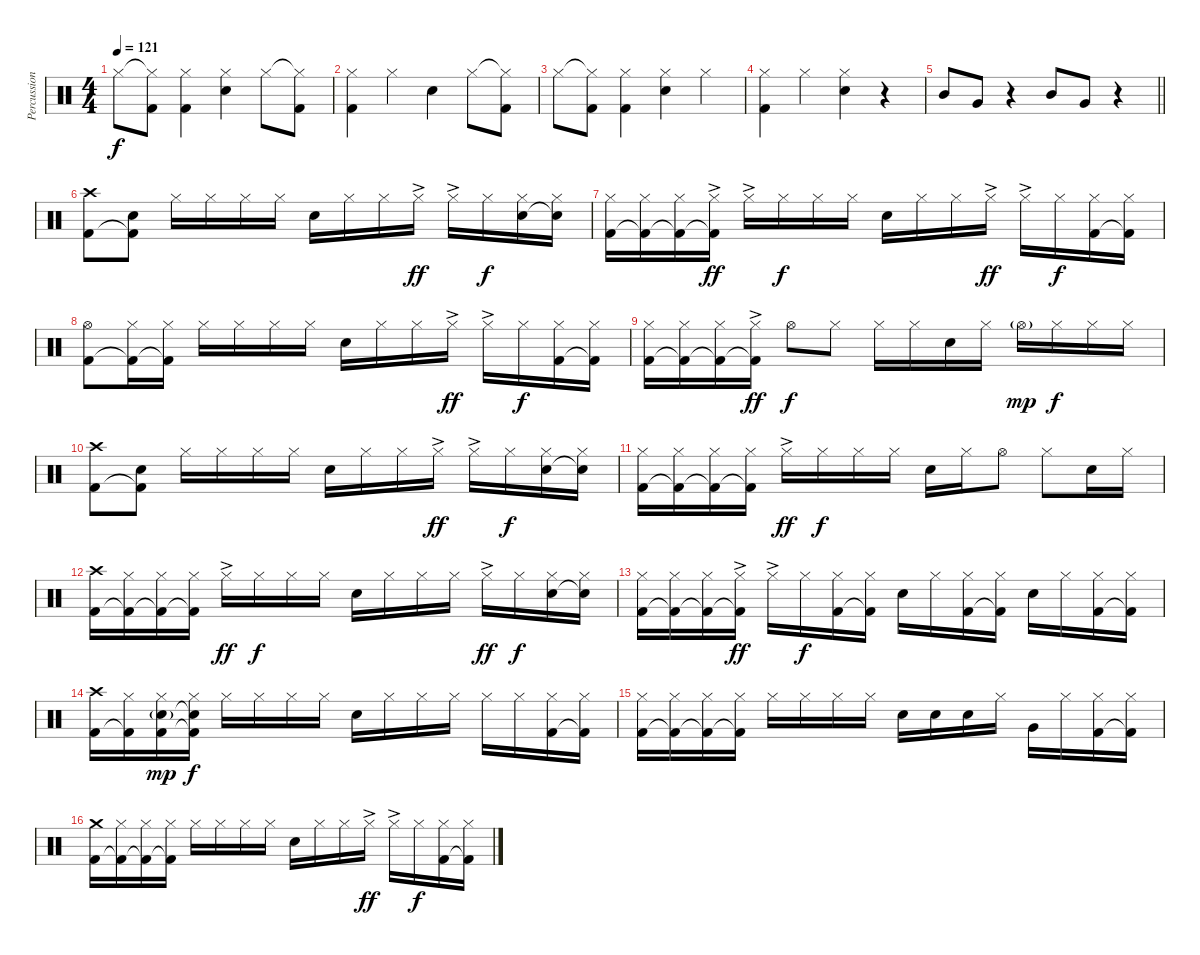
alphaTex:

\track ("Percussioni" "Percussion") {instrument percussion}
\staff {score}
\articulation defaults
\ts (4 4)
\tempo 121
\clef neutral
\ks c "Hi-Hat (closed)".8{dy f}
("Hi-Hat (closed)"{t} "Kick (hit) 2").8 ("Hi-Hat (closed)" "Kick (hit) 2").4 ("Hi-Hat (closed)" "Snare (hit) 2").4 "Hi-Hat (closed)".8 ("Hi-Hat (closed)"{t} "Kick (hit) 2").8 |
("Hi-Hat (closed)" "Kick (hit) 2").4 "Hi-Hat (closed)".4 "Snare (hit) 2".4 "Hi-Hat (closed)".8 ("Hi-Hat (closed)"{t} "Kick (hit) 2").8 |
"Hi-Hat (closed)".8 ("Hi-Hat (closed)"{t} "Kick (hit) 2").8 ("Hi-Hat (closed)" "Kick (hit) 2").4 ("Hi-Hat (closed)" "Snare (hit) 2").4 "Hi-Hat (closed)".4 |
("Hi-Hat (closed)" "Kick (hit) 2").4 "Hi-Hat (closed)".4 ("Hi-Hat (closed)" "Snare (hit) 2").4 r.4 |
\barLineRight lightlight "Mid Tom (hit)".8 "Very Low Tom (hit)".8
r.4 "Mid Tom (hit)".8 "Very Low Tom (hit)".8 r.4 |
("Crash high (hit)" "Kick (hit) 2").8 ("Snare (hit) 2" "Kick (hit) 2"{t}).8 "Hi-Hat (closed)".16 "Hi-Hat (closed)".16 "Hi-Hat (closed)".16 "Hi-Hat (closed)".16 "Snare (hit) 2".16 "Hi-Hat (closed)".16 "Hi-Hat (closed)".16 "Hi-Hat (closed)"{ac}.16{dy ff} "Hi-Hat (closed)"{ac}.16 "Hi-Hat (closed)".16{dy f} ("Hi-Hat (closed)" "Snare (hit) 2").16 ("Hi-Hat (closed)" "Snare (hit) 2"{t}).16 |
("Hi-Hat (closed)" "Kick (hit) 2").16 ("Hi-Hat (closed)" "Kick (hit) 2"{t}).16 ("Hi-Hat (closed)" "Kick (hit) 2"{t}).16 ("Hi-Hat (closed)"{ac} "Kick (hit) 2"{t}).16{dy ff} "Hi-Hat (closed)"{ac}.16 "Hi-Hat (closed)".16{dy f} "Hi-Hat (closed)".16 "Hi-Hat (closed)".16 "Snare (hit) 2".16 "Hi-Hat (closed)".16 "Hi-Hat (closed)".16 "Hi-Hat (closed)"{ac}.16{dy ff} "Hi-Hat (closed)"{ac}.16 "Hi-Hat (closed)".16{dy f} ("Hi-Hat (closed)" "Kick (hit) 2").16 ("Hi-Hat (closed)" "Kick (hit) 2"{t}).16 |
("Hi-Hat (open)" "Kick (hit) 2").8 ("Hi-Hat (closed)" "Kick (hit) 2"{t}).16 ("Hi-Hat (closed)" "Kick (hit) 2"{t}).16 "Hi-Hat (closed)".16 "Hi-Hat (closed)".16 "Hi-Hat (closed)".16 "Hi-Hat (closed)".16 "Snare (hit) 2".16 "Hi-Hat (closed)".16 "Hi-Hat (closed)".16 "Hi-Hat (closed)"{ac}.16{dy ff} "Hi-Hat (closed)"{ac}.16 "Hi-Hat (closed)".16{dy f} ("Hi-Hat (closed)" "Kick (hit) 2").16 ("Hi-Hat (closed)" "Kick (hit) 2"{t}).16 |
("Hi-Hat (closed)" "Kick (hit) 2").16 ("Hi-Hat (closed)" "Kick (hit) 2"{t}).16 ("Hi-Hat (closed)" "Kick (hit) 2"{t}).16 ("Hi-Hat (closed)"{ac} "Kick (hit) 2"{t}).16{dy ff} "Hi-Hat (open)".8{dy f} "Hi-Hat (closed)".8 "Hi-Hat (closed)".16 "Hi-Hat (closed)".16 "Snare (hit) 2".16 "Hi-Hat (closed)".16 "Hi-Hat (open)"{g}.16{dy mp} "Hi-Hat (closed)".16{dy f} "Hi-Hat (closed)".16 "Hi-Hat (closed)".16 |
("Crash high (hit)" "Kick (hit) 2").8 ("Snare (hit) 2" "Kick (hit) 2"{t}).8 "Hi-Hat (closed)".16 "Hi-Hat (closed)".16 "Hi-Hat (closed)".16 "Hi-Hat (closed)".16 "Snare (hit) 2".16 "Hi-Hat (closed)".16 "Hi-Hat (closed)".16 "Hi-Hat (closed)"{ac}.16{dy ff} "Hi-Hat (closed)"{ac}.16 "Hi-Hat (closed)".16{dy f} ("Hi-Hat (closed)" "Snare (hit) 2").16 ("Hi-Hat (closed)" "Snare (hit) 2"{t}).16 |
("Hi-Hat (closed)" "Kick (hit) 2").16 ("Hi-Hat (closed)" "Kick (hit) 2"{t}).16 ("Hi-Hat (closed)" "Kick (hit) 2"{t}).16 ("Hi-Hat (closed)" "Kick (hit) 2"{t}).16 "Hi-Hat (closed)"{ac}.16{dy ff} "Hi-Hat (closed)".16{dy f} "Hi-Hat (closed)".16 "Hi-Hat (closed)".16 "Snare (hit) 2".16 "Hi-Hat (closed)".16 "Hi-Hat (open)".8 "Hi-Hat (closed)".8 "Snare (hit) 2".16 "Hi-Hat (closed)".16 |
("Crash high (hit)" "Kick (hit) 2").16 ("Hi-Hat (closed)" "Kick (hit) 2"{t}).16 ("Hi-Hat (closed)" "Kick (hit) 2"{t}).16 ("Hi-Hat (closed)" "Kick (hit) 2"{t}).16 "Hi-Hat (closed)"{ac}.16{dy ff} "Hi-Hat (closed)".16{dy f} "Hi-Hat (closed)".16 "Hi-Hat (closed)".16 "Snare (hit) 2".16 "Hi-Hat (closed)".16 "Hi-Hat (closed)".16 "Hi-Hat (closed)".16 "Hi-Hat (closed)"{ac}.16{dy ff} "Hi-Hat (closed)".16{dy f} ("Hi-Hat (closed)" "Snare (hit) 2").16 ("Hi-Hat (closed)" "Snare (hit) 2"{t}).16 |
("Hi-Hat (closed)" "Kick (hit) 2").16 ("Hi-Hat (closed)" "Kick (hit) 2"{t}).16 ("Hi-Hat (closed)" "Kick (hit) 2"{t}).16 ("Hi-Hat (closed)"{ac} "Kick (hit) 2"{t}).16{dy ff} "Hi-Hat (closed)"{ac}.16 "Hi-Hat (closed)".16{dy f} ("Hi-Hat (closed)" "Kick (hit) 2").16 ("Hi-Hat (closed)" "Kick (hit) 2"{t}).16 "Snare (hit) 2".16 "Hi-Hat (closed)".16 ("Hi-Hat (closed)" "Kick (hit) 2").16 ("Hi-Hat (closed)" "Kick (hit) 2"{t}).16 "Snare (hit) 2".16 "Hi-Hat (closed)".16 ("Hi-Hat (closed)" "Kick (hit) 2").16 ("Hi-Hat (closed)" "Kick (hit) 2"{t}).16 |
("Crash high (hit)" "Kick (hit) 2").16 ("Hi-Hat (closed)" "Kick (hit) 2"{t}).16 ("Hi-Hat (closed)" "Snare (hit) 2"{g} "Kick (hit) 2").16{dy mp} ("Hi-Hat (closed)" "Snare (hit) 2"{t} "Kick (hit) 2"{t}).16{dy f} "Hi-Hat (closed)".16 "Hi-Hat (closed)".16 "Hi-Hat (closed)".16 "Hi-Hat (closed)".16 "Snare (hit) 2".16 "Hi-Hat (closed)".16 "Hi-Hat (closed)".16 "Hi-Hat (closed)".16 "Hi-Hat (closed)".16 "Hi-Hat (closed)".16 ("Hi-Hat (closed)" "Kick (hit) 2").16 ("Hi-Hat (closed)" "Kick (hit) 2"{t}).16 |
("Hi-Hat (closed)" "Kick (hit) 2").16 ("Hi-Hat (closed)" "Kick (hit) 2"{t}).16 ("Hi-Hat (closed)" "Kick (hit) 2"{t}).16 ("Hi-Hat (closed)" "Kick (hit) 2"{t}).16 "Hi-Hat (closed)".16 "Hi-Hat (closed)".16 "Hi-Hat (closed)".16 "Hi-Hat (closed)".16 "Snare (hit) 2".16 "Snare (hit) 2".16 "Snare (hit) 2".16 "Hi-Hat (closed)".16 "Very Low Tom (hit)".16 "Hi-Hat (closed)".16 ("Hi-Hat (closed)" "Kick (hit) 2").16 ("Hi-Hat (closed)" "Kick (hit) 2"{t}).16 |
("Crash medium (hit)" "Kick (hit) 2").16 ("Hi-Hat (closed)" "Kick (hit) 2"{t}).16 ("Hi-Hat (closed)" "Kick (hit) 2"{t}).16 ("Hi-Hat (closed)" "Kick (hit) 2"{t}).16 "Hi-Hat (closed)".16 "Hi-Hat (closed)".16 "Hi-Hat (closed)".16 "Hi-Hat (closed)".16 "Snare (hit) 2".16 "Hi-Hat (closed)".16 "Hi-Hat (closed)".16 "Hi-Hat (closed)"{ac}.16{dy ff} "Hi-Hat (closed)"{ac}.16 "Hi-Hat (closed)".16{dy f} ("Hi-Hat (closed)" "Kick (hit) 2").16 ("Hi-Hat (closed)" "Kick (hit) 2"{t}).16
